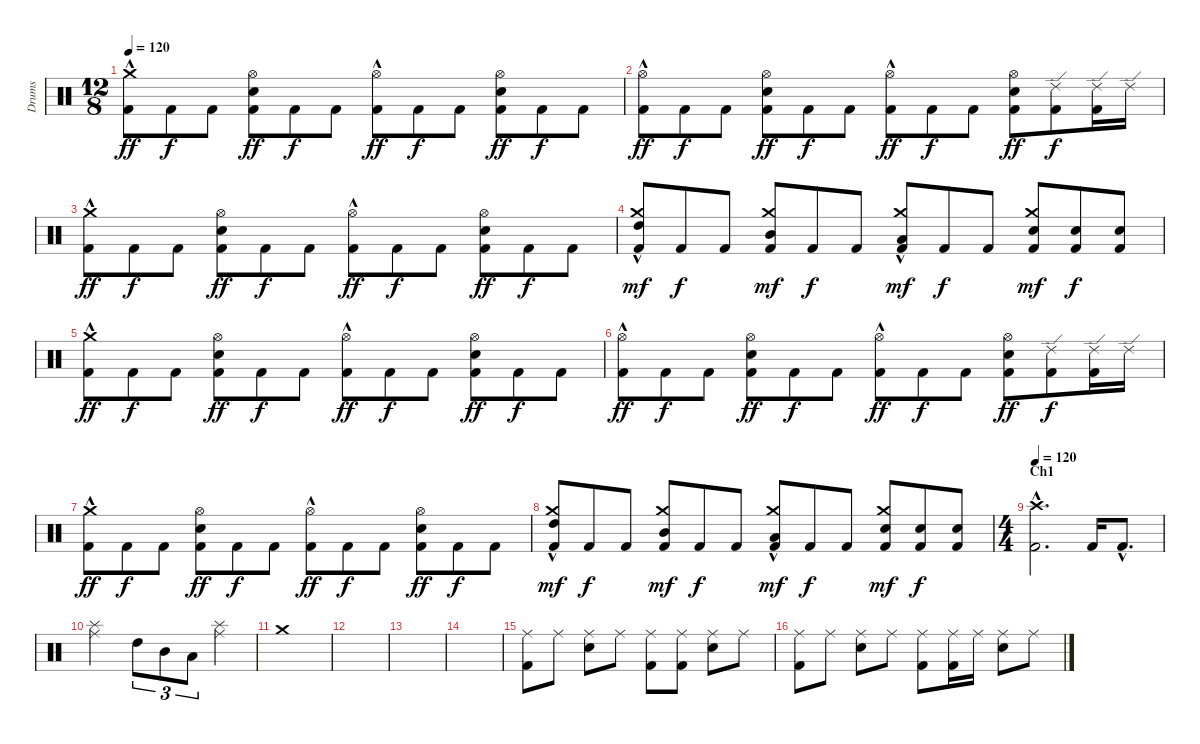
\track ("Drums" "Drums") {instrument percussion}
\staff {score}
\articulation defaults
\ts (12 8)
\tempo 120
\clef neutral
\ks c
("Kick (hit) 2" "Crash medium (hit)"{hac}).8{dy ff} "Kick (hit) 2".8{dy f} "Kick (hit) 2".8 ("Kick (hit) 2" "Electric Snare (hit)" "Hi-Hat (open)").8{dy ff} "Kick (hit) 2".8{dy f} "Kick (hit) 2".8 ("Kick (hit) 2" "Hi-Hat (open)"{hac}).8{dy ff} "Kick (hit) 2".8{dy f} "Kick (hit) 2".8 ("Kick (hit) 2" "Electric Snare (hit)" "Hi-Hat (open)").8{dy ff} "Kick (hit) 2".8{dy f} "Kick (hit) 2".8 |
("Kick (hit) 2" "Hi-Hat (open)"{hac}).8{dy ff} "Kick (hit) 2".8{dy f} "Kick (hit) 2".8 ("Kick (hit) 2" "Electric Snare (hit)" "Hi-Hat (open)").8{dy ff} "Kick (hit) 2".8{dy f} "Kick (hit) 2".8 ("Kick (hit) 2" "Hi-Hat (open)"{hac}).8{dy ff} "Kick (hit) 2".8{dy f} "Kick (hit) 2".8 ("Kick (hit) 2" "Electric Snare (hit)" "Hi-Hat (open)").8{dy ff} ("Kick (hit) 2" "Ride (edge) 2").8{dy f} ("Kick (hit) 2" "Ride (edge) 2").16 "Ride (edge) 2".16 |
("Kick (hit) 2" "Crash medium (hit)"{hac}).8{dy ff} "Kick (hit) 2".8{dy f} "Kick (hit) 2".8 ("Kick (hit) 2" "Electric Snare (hit)" "Hi-Hat (open)").8{dy ff} "Kick (hit) 2".8{dy f} "Kick (hit) 2".8 ("Kick (hit) 2" "Hi-Hat (open)"{hac}).8{dy ff} "Kick (hit) 2".8{dy f} "Kick (hit) 2".8 ("Kick (hit) 2" "Electric Snare (hit)" "Hi-Hat (open)").8{dy ff} "Kick (hit) 2".8{dy f} "Kick (hit) 2".8 |
("Kick (hit) 2" "High Tom (hit)" "Crash medium (hit)"{hac}).8{dy mf} "Kick (hit) 2".8{dy f} "Kick (hit) 2".8 ("Kick (hit) 2" "Mid Tom (hit)" "Crash medium (hit)").8{dy mf} "Kick (hit) 2".8{dy f} "Kick (hit) 2".8 ("Kick (hit) 2" "Low Tom (hit)" "Crash medium (hit)"{hac}).8{dy mf} "Kick (hit) 2".8{dy f} "Kick (hit) 2".8 ("Kick (hit) 2" "Electric Snare (hit)" "Crash medium (hit)").8{dy mf} ("Kick (hit) 2" "Electric Snare (hit)").8{dy f} ("Kick (hit) 2" "Electric Snare (hit)").8 |
("Kick (hit) 2" "Crash medium (hit)"{hac}).8{dy ff} "Kick (hit) 2".8{dy f} "Kick (hit) 2".8 ("Kick (hit) 2" "Electric Snare (hit)" "Hi-Hat (open)").8{dy ff} "Kick (hit) 2".8{dy f} "Kick (hit) 2".8 ("Kick (hit) 2" "Hi-Hat (open)"{hac}).8{dy ff} "Kick (hit) 2".8{dy f} "Kick (hit) 2".8 ("Kick (hit) 2" "Electric Snare (hit)" "Hi-Hat (open)").8{dy ff} "Kick (hit) 2".8{dy f} "Kick (hit) 2".8 |
("Kick (hit) 2" "Hi-Hat (open)"{hac}).8{dy ff} "Kick (hit) 2".8{dy f} "Kick (hit) 2".8 ("Kick (hit) 2" "Electric Snare (hit)" "Hi-Hat (open)").8{dy ff} "Kick (hit) 2".8{dy f} "Kick (hit) 2".8 ("Kick (hit) 2" "Hi-Hat (open)"{hac}).8{dy ff} "Kick (hit) 2".8{dy f} "Kick (hit) 2".8 ("Kick (hit) 2" "Electric Snare (hit)" "Hi-Hat (open)").8{dy ff} ("Kick (hit) 2" "Ride (edge) 2").8{dy f} ("Kick (hit) 2" "Ride (edge) 2").16 "Ride (edge) 2".16 |
("Kick (hit) 2" "Crash medium (hit)"{hac}).8{dy ff} "Kick (hit) 2".8{dy f} "Kick (hit) 2".8 ("Kick (hit) 2" "Electric Snare (hit)" "Hi-Hat (open)").8{dy ff} "Kick (hit) 2".8{dy f} "Kick (hit) 2".8 ("Kick (hit) 2" "Hi-Hat (open)"{hac}).8{dy ff} "Kick (hit) 2".8{dy f} "Kick (hit) 2".8 ("Kick (hit) 2" "Electric Snare (hit)" "Hi-Hat (open)").8{dy ff} "Kick (hit) 2".8{dy f} "Kick (hit) 2".8 |
("Kick (hit) 2" "High Tom (hit)" "Crash medium (hit)"{hac}).8{dy mf} "Kick (hit) 2".8{dy f} "Kick (hit) 2".8 ("Kick (hit) 2" "Mid Tom (hit)" "Crash medium (hit)").8{dy mf} "Kick (hit) 2".8{dy f} "Kick (hit) 2".8 ("Kick (hit) 2" "Low Tom (hit)" "Crash medium (hit)"{hac}).8{dy mf} "Kick (hit) 2".8{dy f} "Kick (hit) 2".8 ("Kick (hit) 2" "Electric Snare (hit)" "Crash medium (hit)").8{dy mf} ("Kick (hit) 2" "Electric Snare (hit)").8{dy f} ("Kick (hit) 2" "Electric Snare (hit)").8 |
\ts (4 4)
\section ("" "Ch1")
\tempo 120
("Crash high (hit)"{hac} "Kick (hit) 2"{hac}).2{d} "Kick (hit) 2".16 "Kick (hit) 2"{hac}.8{d} |
("Splash (hit)" "Ride (middle)").2 "High Tom (hit)".8{tu (3 2)} "Mid Tom (hit)".8{tu (3 2)} "Low Tom (hit)".8{tu (3 2)} ("Ride (middle)" "Splash (hit)").4 |
"Crash medium (hit)".1 |
|
|
|
("Ride (middle)" "Kick (hit) 2").8{volume 11} "Ride (middle)".8 ("Ride (middle)" "Electric Snare (hit)").8 "Ride (middle)".8 ("Ride (middle)" "Kick (hit) 2").8 ("Ride (middle)" "Kick (hit) 2").8 ("Ride (middle)" "Electric Snare (hit)").8 "Ride (middle)".8 |
("Ride (middle)" "Kick (hit) 2").8 "Ride (middle)".8 ("Ride (middle)" "Electric Snare (hit)").8 "Ride (middle)".8 ("Ride (middle)" "Kick (hit) 2").8 ("Ride (middle)" "Kick (hit) 2").16 "Ride (middle)".16 ("Ride (middle)" "Electric Snare (hit)").8 "Ride (middle)".8
